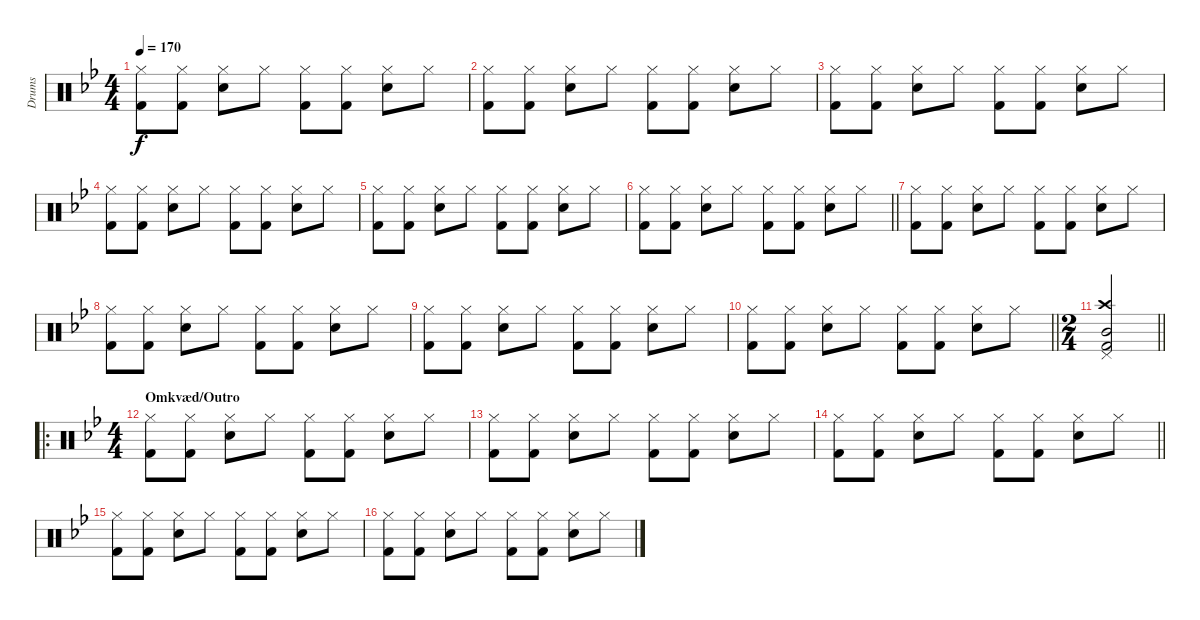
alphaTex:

\track ("Drums" "Drums") {instrument percussion}
\staff {score}
\articulation defaults
\ts (4 4)
\tempo 170
\clef neutral
\ks bb
("Hi-Hat (closed)" "Kick (hit) 2").8{dy f} ("Hi-Hat (closed)" "Kick (hit) 2").8 ("Hi-Hat (closed)" "Snare (hit) 2").8 "Hi-Hat (closed)".8 ("Hi-Hat (closed)" "Kick (hit) 2").8 ("Hi-Hat (closed)" "Kick (hit) 2").8 ("Hi-Hat (closed)" "Snare (hit) 2").8 "Hi-Hat (closed)".8 |
("Hi-Hat (closed)" "Kick (hit) 2").8 ("Hi-Hat (closed)" "Kick (hit) 2").8 ("Hi-Hat (closed)" "Snare (hit) 2").8 "Hi-Hat (closed)".8 ("Hi-Hat (closed)" "Kick (hit) 2").8 ("Hi-Hat (closed)" "Kick (hit) 2").8 ("Hi-Hat (closed)" "Snare (hit) 2").8 "Hi-Hat (closed)".8 |
("Hi-Hat (closed)" "Kick (hit) 2").8 ("Hi-Hat (closed)" "Kick (hit) 2").8 ("Hi-Hat (closed)" "Snare (hit) 2").8 "Hi-Hat (closed)".8 ("Hi-Hat (closed)" "Kick (hit) 2").8 ("Hi-Hat (closed)" "Kick (hit) 2").8 ("Hi-Hat (closed)" "Snare (hit) 2").8 "Hi-Hat (closed)".8 |
("Hi-Hat (closed)" "Kick (hit) 2").8 ("Hi-Hat (closed)" "Kick (hit) 2").8 ("Hi-Hat (closed)" "Snare (hit) 2").8 "Hi-Hat (closed)".8 ("Hi-Hat (closed)" "Kick (hit) 2").8 ("Hi-Hat (closed)" "Kick (hit) 2").8 ("Hi-Hat (closed)" "Snare (hit) 2").8 "Hi-Hat (closed)".8 |
("Hi-Hat (closed)" "Kick (hit) 2").8 ("Hi-Hat (closed)" "Kick (hit) 2").8 ("Hi-Hat (closed)" "Snare (hit) 2").8 "Hi-Hat (closed)".8 ("Hi-Hat (closed)" "Kick (hit) 2").8 ("Hi-Hat (closed)" "Kick (hit) 2").8 ("Hi-Hat (closed)" "Snare (hit) 2").8 "Hi-Hat (closed)".8 |
\barLineRight lightlight
("Hi-Hat (closed)" "Kick (hit) 2").8 ("Hi-Hat (closed)" "Kick (hit) 2").8 ("Hi-Hat (closed)" "Snare (hit) 2").8 "Hi-Hat (closed)".8 ("Hi-Hat (closed)" "Kick (hit) 2").8 ("Hi-Hat (closed)" "Kick (hit) 2").8 ("Hi-Hat (closed)" "Snare (hit) 2").8 "Hi-Hat (closed)".8 |
("Hi-Hat (closed)" "Kick (hit) 2").8 ("Hi-Hat (closed)" "Kick (hit) 2").8 ("Hi-Hat (closed)" "Snare (hit) 2").8 "Hi-Hat (closed)".8 ("Hi-Hat (closed)" "Kick (hit) 2").8 ("Hi-Hat (closed)" "Kick (hit) 2").8 ("Hi-Hat (closed)" "Snare (hit) 2").8 "Hi-Hat (closed)".8 |
("Hi-Hat (closed)" "Kick (hit) 2").8 ("Hi-Hat (closed)" "Kick (hit) 2").8 ("Hi-Hat (closed)" "Snare (hit) 2").8 "Hi-Hat (closed)".8 ("Hi-Hat (closed)" "Kick (hit) 2").8 ("Hi-Hat (closed)" "Kick (hit) 2").8 ("Hi-Hat (closed)" "Snare (hit) 2").8 "Hi-Hat (closed)".8 |
("Hi-Hat (closed)" "Kick (hit) 2").8 ("Hi-Hat (closed)" "Kick (hit) 2").8 ("Hi-Hat (closed)" "Snare (hit) 2").8 "Hi-Hat (closed)".8 ("Hi-Hat (closed)" "Kick (hit) 2").8 ("Hi-Hat (closed)" "Kick (hit) 2").8 ("Hi-Hat (closed)" "Snare (hit) 2").8 "Hi-Hat (closed)".8 |
\barLineRight lightlight
("Hi-Hat (closed)" "Kick (hit) 2").8 ("Hi-Hat (closed)" "Kick (hit) 2").8 ("Hi-Hat (closed)" "Snare (hit) 2").8 "Hi-Hat (closed)".8 ("Hi-Hat (closed)" "Kick (hit) 2").8 ("Hi-Hat (closed)" "Kick (hit) 2").8 ("Hi-Hat (closed)" "Snare (hit) 2").8 "Hi-Hat (closed)".8 |
\ts (2 4)
\barLineRight lightlight
("Crash high (hit)" "Kick (hit) 2" "Mid Tom (hit)" "Pedal Hi-Hat (hit)").2 |
\ro
\ts (4 4)
\section ("" "Omkvæd/Outro")
("Hi-Hat (closed)" "Kick (hit) 2").8 ("Hi-Hat (closed)" "Kick (hit) 2").8 ("Hi-Hat (closed)" "Snare (hit) 2").8 "Hi-Hat (closed)".8 ("Hi-Hat (closed)" "Kick (hit) 2").8 ("Hi-Hat (closed)" "Kick (hit) 2").8 ("Hi-Hat (closed)" "Snare (hit) 2").8 "Hi-Hat (closed)".8 |
("Hi-Hat (closed)" "Kick (hit) 2").8 ("Hi-Hat (closed)" "Kick (hit) 2").8 ("Hi-Hat (closed)" "Snare (hit) 2").8 "Hi-Hat (closed)".8 ("Hi-Hat (closed)" "Kick (hit) 2").8 ("Hi-Hat (closed)" "Kick (hit) 2").8 ("Hi-Hat (closed)" "Snare (hit) 2").8 "Hi-Hat (closed)".8 |
\barLineRight lightlight
("Hi-Hat (closed)" "Kick (hit) 2").8 ("Hi-Hat (closed)" "Kick (hit) 2").8 ("Hi-Hat (closed)" "Snare (hit) 2").8 "Hi-Hat (closed)".8 ("Hi-Hat (closed)" "Kick (hit) 2").8 ("Hi-Hat (closed)" "Kick (hit) 2").8 ("Hi-Hat (closed)" "Snare (hit) 2").8 "Hi-Hat (closed)".8 |
\section ("" "")
("Hi-Hat (closed)" "Kick (hit) 2").8 ("Hi-Hat (closed)" "Kick (hit) 2").8 ("Hi-Hat (closed)" "Snare (hit) 2").8 "Hi-Hat (closed)".8 ("Hi-Hat (closed)" "Kick (hit) 2").8 ("Hi-Hat (closed)" "Kick (hit) 2").8 ("Hi-Hat (closed)" "Snare (hit) 2").8 "Hi-Hat (closed)".8 |
("Hi-Hat (closed)" "Kick (hit) 2").8 ("Hi-Hat (closed)" "Kick (hit) 2").8 ("Hi-Hat (closed)" "Snare (hit) 2").8 "Hi-Hat (closed)".8 ("Hi-Hat (closed)" "Kick (hit) 2").8 ("Hi-Hat (closed)" "Kick (hit) 2").8 ("Hi-Hat (closed)" "Snare (hit) 2").8 "Hi-Hat (closed)".8
